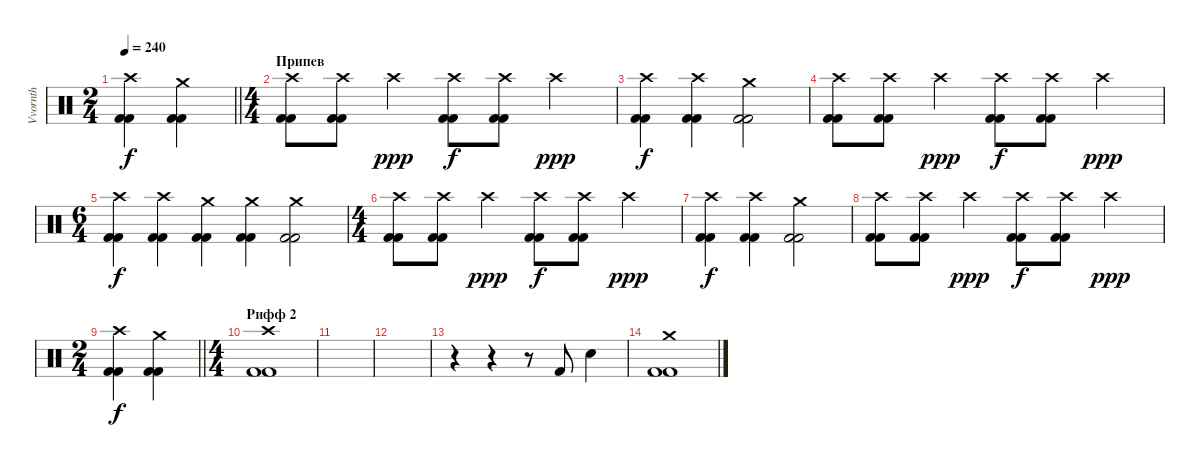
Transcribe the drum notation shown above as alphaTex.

\track ("Vvornth" "Vvornth") {instrument percussion}
\staff {score}
\articulation defaults
\ts (2 4)
\tempo 240
\clef neutral
\barLineRight lightlight
\ks c
("Crash high (hit)" "Kick (hit) 2" "Kick (hit) 2").4{dy f} ("Crash medium (hit)" "Kick (hit) 2" "Kick (hit) 2").4 |
\ts (4 4)
\section ("" "Припев")
("Crash high (hit)" "Kick (hit) 2" "Kick (hit) 2").8 ("Crash high (hit)" "Kick (hit) 2" "Kick (hit) 2").8 "Crash high (hit)".4{dy ppp} ("Crash high (hit)" "Kick (hit) 2" "Kick (hit) 2").8{dy f} ("Crash high (hit)" "Kick (hit) 2" "Kick (hit) 2").8 "Crash high (hit)".4{dy ppp} |
("Crash high (hit)" "Kick (hit) 2" "Kick (hit) 2").4{dy f} ("Crash high (hit)" "Kick (hit) 2" "Kick (hit) 2").4 ("Crash medium (hit)" "Kick (hit) 2" "Kick (hit) 2").2 |
("Crash high (hit)" "Kick (hit) 2" "Kick (hit) 2").8 ("Crash high (hit)" "Kick (hit) 2" "Kick (hit) 2").8 "Crash high (hit)".4{dy ppp} ("Crash high (hit)" "Kick (hit) 2" "Kick (hit) 2").8{dy f} ("Crash high (hit)" "Kick (hit) 2" "Kick (hit) 2").8 "Crash high (hit)".4{dy ppp} |
\ts (6 4)
("Crash high (hit)" "Kick (hit) 2" "Kick (hit) 2").4{dy f} ("Crash high (hit)" "Kick (hit) 2" "Kick (hit) 2").4 ("Crash medium (hit)" "Kick (hit) 2" "Kick (hit) 2").4 ("Crash medium (hit)" "Kick (hit) 2" "Kick (hit) 2").4 ("Crash medium (hit)" "Kick (hit) 2" "Kick (hit) 2").2 |
\ts (4 4)
("Crash high (hit)" "Kick (hit) 2" "Kick (hit) 2").8 ("Crash high (hit)" "Kick (hit) 2" "Kick (hit) 2").8 "Crash high (hit)".4{dy ppp} ("Crash high (hit)" "Kick (hit) 2" "Kick (hit) 2").8{dy f} ("Crash high (hit)" "Kick (hit) 2" "Kick (hit) 2").8 "Crash high (hit)".4{dy ppp} |
("Crash high (hit)" "Kick (hit) 2" "Kick (hit) 2").4{dy f} ("Crash high (hit)" "Kick (hit) 2" "Kick (hit) 2").4 ("Crash medium (hit)" "Kick (hit) 2" "Kick (hit) 2").2 |
("Crash high (hit)" "Kick (hit) 2" "Kick (hit) 2").8 ("Crash high (hit)" "Kick (hit) 2" "Kick (hit) 2").8 "Crash high (hit)".4{dy ppp} ("Crash high (hit)" "Kick (hit) 2" "Kick (hit) 2").8{dy f} ("Crash high (hit)" "Kick (hit) 2" "Kick (hit) 2").8 "Crash high (hit)".4{dy ppp} |
\ts (2 4)
\barLineRight lightlight
("Crash high (hit)" "Kick (hit) 2" "Kick (hit) 2").4{dy f} ("Crash medium (hit)" "Kick (hit) 2" "Kick (hit) 2").4 |
\ts (4 4)
\section ("" "Рифф 2")
("Crash high (hit)" "Kick (hit) 2" "Kick (hit) 2").1 |
|
|
r.4 r.4 r.8 "Kick (hit) 2".8 "Snare (hit) 2".4 |
("Crash medium (hit)" "Kick (hit) 2" "Kick (hit) 2").1
